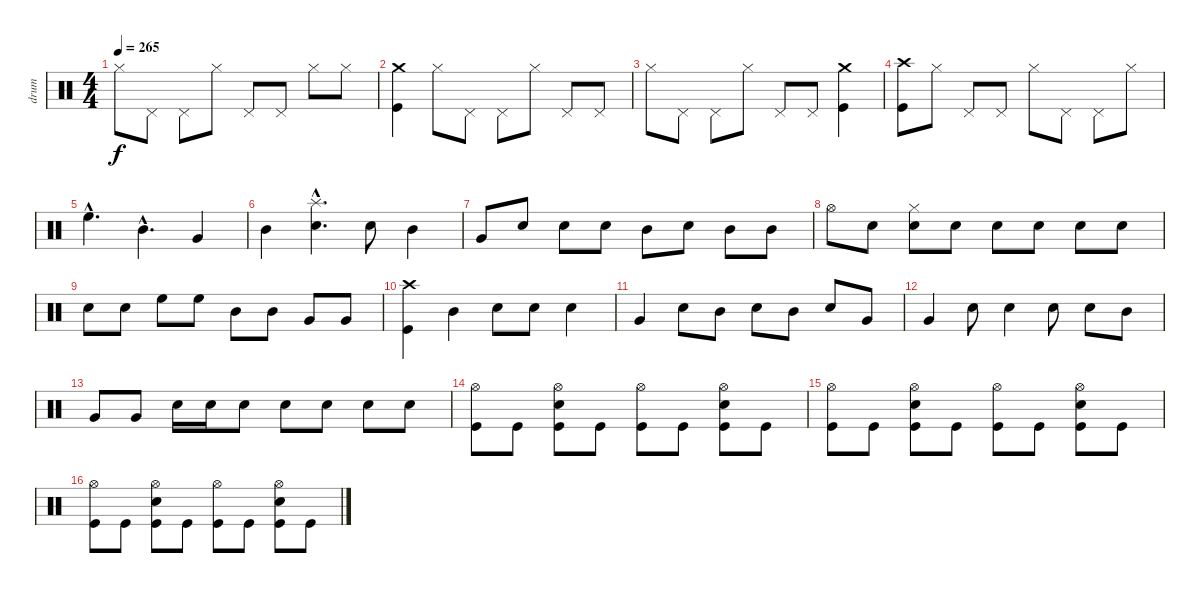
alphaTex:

\track ("drum" "drum") {instrument percussion}
\staff {score}
\articulation defaults
\ts (4 4)
\tempo 265
\clef neutral
\ks c "Hi-Hat (closed)".8{dy f} "Pedal Hi-Hat (hit)".8 "Pedal Hi-Hat (hit)".8 "Hi-Hat (closed)".8 "Pedal Hi-Hat (hit)".8 "Pedal Hi-Hat (hit)".8 "Hi-Hat (closed)".8 "Hi-Hat (closed)".8
|
("Kick (hit)" "Crash medium (hit)").4 "Hi-Hat (closed)".8 "Pedal Hi-Hat (hit)".8 "Pedal Hi-Hat (hit)".8 "Hi-Hat (closed)".8 "Pedal Hi-Hat (hit)".8 "Pedal Hi-Hat (hit)".8 |
"Hi-Hat (closed)".8 "Pedal Hi-Hat (hit)".8 "Pedal Hi-Hat (hit)".8 "Hi-Hat (closed)".8 "Pedal Hi-Hat (hit)".8 "Pedal Hi-Hat (hit)".8 ("Kick (hit)" "Crash medium (hit)").4 |
("Kick (hit)" "Crash high (hit)").8 "Hi-Hat (closed)".8 "Pedal Hi-Hat (hit)".8 "Pedal Hi-Hat (hit)".8 "Hi-Hat (closed)".8 "Pedal Hi-Hat (hit)".8 "Pedal Hi-Hat (hit)".8 "Hi-Hat (closed)".8 |
"High Floor Tom (hit)"{hac}.4{d} "Mid Tom (hit)"{hac}.4{d} "Very Low Tom (hit)".4 |
"Mid Tom (hit)".4 ("Electric Snare (hit)"{hac} "Splash (hit)"{hac}).4{d} "Electric Snare (hit)".8 "Mid Tom (hit)".4 |
"Very Low Tom (hit)".8 "Electric Snare (hit)".8 "Electric Snare (hit)".8 "Electric Snare (hit)".8 "Mid Tom (hit)".8 "Electric Snare (hit)".8 "Mid Tom (hit)".8 "Mid Tom (hit)".8 |
"Hi-Hat (open)".8 "Electric Snare (hit)".8 ("Electric Snare (hit)" "Hi-Hat (closed)").8 "Electric Snare (hit)".8 "Electric Snare (hit)".8 "Electric Snare (hit)".8 "Electric Snare (hit)".8 "Electric Snare (hit)".8 |
"Electric Snare (hit)".8 "Electric Snare (hit)".8 "High Floor Tom (hit)".8 "High Floor Tom (hit)".8 "Mid Tom (hit)".8 "Mid Tom (hit)".8 "Very Low Tom (hit)".8 "Very Low Tom (hit)".8 |
("Kick (hit)" "Crash high (hit)").4 "Mid Tom (hit)".4 "Electric Snare (hit)".8 "Electric Snare (hit)".8 "Electric Snare (hit)".4 |
"Very Low Tom (hit)".4 "Electric Snare (hit)".8 "Mid Tom (hit)".8 "Electric Snare (hit)".8 "Mid Tom (hit)".8 "Electric Snare (hit)".8 "Very Low Tom (hit)".8 |
"Very Low Tom (hit)".4 "Electric Snare (hit)".8 "Electric Snare (hit)".4 "Electric Snare (hit)".8 "Electric Snare (hit)".8 "Mid Tom (hit)".8 |
"Very Low Tom (hit)".8 "Very Low Tom (hit)".8 "Electric Snare (hit)".16 "Electric Snare (hit)".16 "Electric Snare (hit)".8 "Electric Snare (hit)".8 "Electric Snare (hit)".8 "Electric Snare (hit)".8 "Electric Snare (hit)".8 |
("Kick (hit)" "Hi-Hat (open)").8 "Kick (hit)".8 ("Kick (hit)" "Electric Snare (hit)" "Hi-Hat (open)").8 "Kick (hit)".8 ("Kick (hit)" "Hi-Hat (open)").8 "Kick (hit)".8 ("Kick (hit)" "Electric Snare (hit)" "Hi-Hat (open)").8 "Kick (hit)".8 |
("Kick (hit)" "Hi-Hat (open)").8 "Kick (hit)".8 ("Kick (hit)" "Electric Snare (hit)" "Hi-Hat (open)").8 "Kick (hit)".8 ("Kick (hit)" "Hi-Hat (open)").8 "Kick (hit)".8 ("Kick (hit)" "Electric Snare (hit)" "Hi-Hat (open)").8 "Kick (hit)".8 |
("Kick (hit)" "Hi-Hat (open)").8 "Kick (hit)".8 ("Kick (hit)" "Electric Snare (hit)" "Hi-Hat (open)").8 "Kick (hit)".8 ("Kick (hit)" "Hi-Hat (open)").8 "Kick (hit)".8 ("Kick (hit)" "Electric Snare (hit)" "Hi-Hat (open)").8 "Kick (hit)".8
